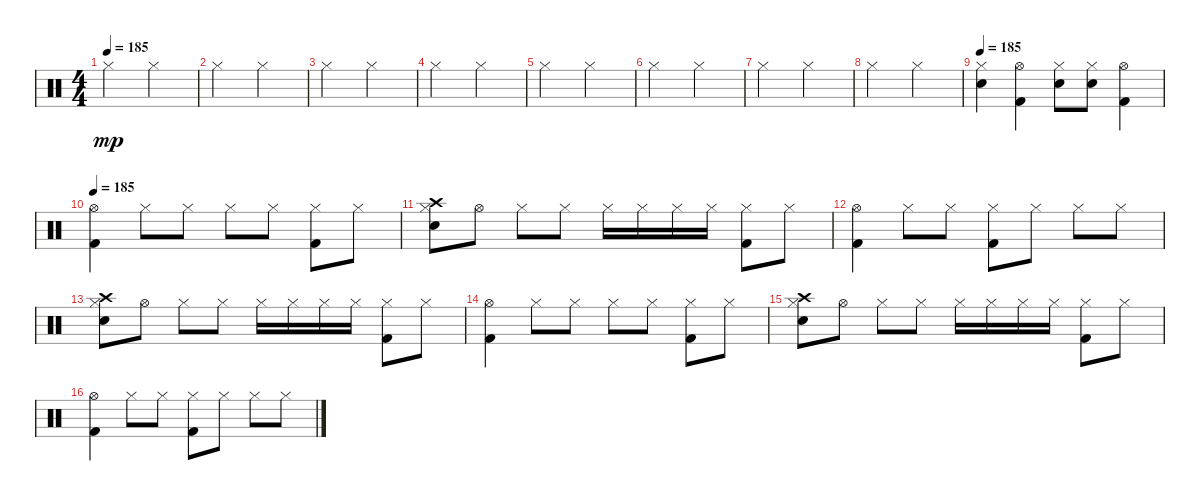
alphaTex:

\track "" {instrument percussion}
\staff {score}
\articulation defaults
\ts (4 4)
\tempo 185
\clef neutral
\ks c "Hi-Hat (closed)".2{dy mp} "Hi-Hat (closed)".2
|
"Hi-Hat (closed)".2 "Hi-Hat (closed)".2 |
"Hi-Hat (closed)".2 "Hi-Hat (closed)".2 |
"Hi-Hat (closed)".2 "Hi-Hat (closed)".2 |
"Hi-Hat (closed)".2 "Hi-Hat (closed)".2 |
"Hi-Hat (closed)".2 "Hi-Hat (closed)".2 |
"Hi-Hat (closed)".2 "Hi-Hat (closed)".2 |
"Hi-Hat (closed)".2 "Hi-Hat (closed)".2 |
\tempo 185
("Hi-Hat (closed)" "Electric Snare (hit)").4 ("Hi-Hat (open)" "Kick (hit) 2").4 ("Hi-Hat (closed)" "Electric Snare (hit)").8 ("Hi-Hat (closed)" "Electric Snare (hit)").8 ("Hi-Hat (open)" "Kick (hit) 2").4 |
\tempo 185
("Hi-Hat (open)" "Kick (hit) 2").4 "Hi-Hat (closed)".8 "Hi-Hat (closed)".8 "Hi-Hat (closed)".8 "Hi-Hat (closed)".8 ("Hi-Hat (closed)" "Kick (hit) 2").8 "Hi-Hat (closed)".8 |
("Hi-Hat (closed)" "Electric Snare (hit)" "Crash high (hit)").8 "Hi-Hat (open)".8 "Hi-Hat (closed)".8 "Hi-Hat (closed)".8 "Hi-Hat (closed)".16 "Hi-Hat (closed)".16 "Hi-Hat (closed)".16 "Hi-Hat (closed)".16 ("Hi-Hat (closed)" "Kick (hit) 2").8 "Hi-Hat (closed)".8 |
("Hi-Hat (open)" "Kick (hit) 2").4 "Hi-Hat (closed)".8 "Hi-Hat (closed)".8 ("Hi-Hat (closed)" "Kick (hit) 2").8 "Hi-Hat (closed)".8 "Hi-Hat (closed)".8 "Hi-Hat (closed)".8 |
("Hi-Hat (closed)" "Electric Snare (hit)" "Crash high (hit)").8 "Hi-Hat (open)".8 "Hi-Hat (closed)".8 "Hi-Hat (closed)".8 "Hi-Hat (closed)".16 "Hi-Hat (closed)".16 "Hi-Hat (closed)".16 "Hi-Hat (closed)".16 ("Hi-Hat (closed)" "Kick (hit) 2").8 "Hi-Hat (closed)".8 |
("Hi-Hat (open)" "Kick (hit) 2").4 "Hi-Hat (closed)".8 "Hi-Hat (closed)".8 "Hi-Hat (closed)".8 "Hi-Hat (closed)".8 ("Hi-Hat (closed)" "Kick (hit) 2").8 "Hi-Hat (closed)".8 |
("Hi-Hat (closed)" "Electric Snare (hit)" "Crash high (hit)").8 "Hi-Hat (open)".8 "Hi-Hat (closed)".8 "Hi-Hat (closed)".8 "Hi-Hat (closed)".16 "Hi-Hat (closed)".16 "Hi-Hat (closed)".16 "Hi-Hat (closed)".16 ("Hi-Hat (closed)" "Kick (hit) 2").8 "Hi-Hat (closed)".8 |
("Hi-Hat (open)" "Kick (hit) 2").4 "Hi-Hat (closed)".8 "Hi-Hat (closed)".8 ("Hi-Hat (closed)" "Kick (hit) 2").8 "Hi-Hat (closed)".8 "Hi-Hat (closed)".8 "Hi-Hat (closed)".8
